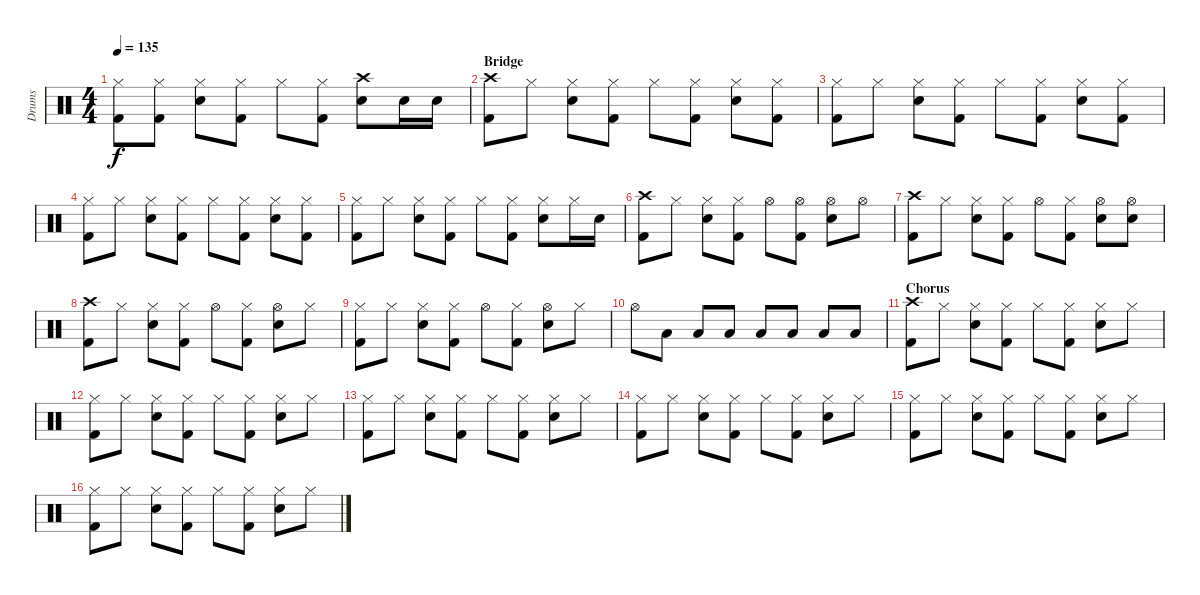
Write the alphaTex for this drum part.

\track ("Drums" "Drums") {instrument percussion}
\staff {score}
\articulation defaults
\ts (4 4)
\tempo 135
\clef neutral
\ks c
("Kick (hit) 2" "Hi-Hat (closed)").8{dy f} ("Kick (hit) 2" "Hi-Hat (closed)").8 ("Snare (hit) 2" "Hi-Hat (closed)").8 ("Kick (hit) 2" "Hi-Hat (closed)").8 "Hi-Hat (closed)".8 ("Kick (hit) 2" "Hi-Hat (closed)").8 ("Crash high (hit)" "Snare (hit) 2").8 "Snare (hit) 2".16 "Snare (hit) 2".16 |
\section ("" "Bridge")
("Crash high (hit)" "Kick (hit) 2").8 "Hi-Hat (closed)".8 ("Snare (hit) 2" "Hi-Hat (closed)").8 ("Kick (hit) 2" "Hi-Hat (closed)").8 "Hi-Hat (closed)".8 ("Kick (hit) 2" "Hi-Hat (closed)").8 ("Snare (hit) 2" "Hi-Hat (closed)").8 ("Kick (hit) 2" "Hi-Hat (closed)").8 |
("Kick (hit) 2" "Hi-Hat (closed)").8 "Hi-Hat (closed)".8 ("Snare (hit) 2" "Hi-Hat (closed)").8 ("Kick (hit) 2" "Hi-Hat (closed)").8 "Hi-Hat (closed)".8 ("Kick (hit) 2" "Hi-Hat (closed)").8 ("Snare (hit) 2" "Hi-Hat (closed)").8 ("Kick (hit) 2" "Hi-Hat (closed)").8 |
("Kick (hit) 2" "Hi-Hat (closed)").8 "Hi-Hat (closed)".8 ("Snare (hit) 2" "Hi-Hat (closed)").8 ("Kick (hit) 2" "Hi-Hat (closed)").8 "Hi-Hat (closed)".8 ("Kick (hit) 2" "Hi-Hat (closed)").8 ("Snare (hit) 2" "Hi-Hat (closed)").8 ("Kick (hit) 2" "Hi-Hat (closed)").8 |
("Kick (hit) 2" "Hi-Hat (closed)").8 "Hi-Hat (closed)".8 ("Snare (hit) 2" "Hi-Hat (closed)").8 ("Kick (hit) 2" "Hi-Hat (closed)").8 "Hi-Hat (closed)".8 ("Kick (hit) 2" "Hi-Hat (closed)").8 ("Snare (hit) 2" "Hi-Hat (closed)").8 "Hi-Hat (closed)".16 "Snare (hit) 2".16 |
("Crash high (hit)" "Kick (hit) 2").8 "Hi-Hat (closed)".8 ("Snare (hit) 2" "Hi-Hat (closed)").8 ("Kick (hit) 2" "Hi-Hat (closed)").8 "Hi-Hat (open)".8 ("Kick (hit) 2" "Hi-Hat (open)").8 ("Snare (hit) 2" "Hi-Hat (open)").8 "Hi-Hat (open)".8 |
("Crash high (hit)" "Kick (hit) 2").8 "Hi-Hat (closed)".8 ("Snare (hit) 2" "Hi-Hat (closed)").8 ("Kick (hit) 2" "Hi-Hat (closed)").8 "Hi-Hat (open)".8 ("Kick (hit) 2" "Hi-Hat (closed)").8 ("Snare (hit) 2" "Hi-Hat (open)").8 ("Snare (hit) 2" "Hi-Hat (open)").8 |
("Crash high (hit)" "Kick (hit) 2").8 "Hi-Hat (closed)".8 ("Snare (hit) 2" "Hi-Hat (closed)").8 ("Kick (hit) 2" "Hi-Hat (closed)").8 "Hi-Hat (open)".8 ("Kick (hit) 2" "Hi-Hat (closed)").8 ("Snare (hit) 2" "Hi-Hat (open)").8 "Hi-Hat (closed)".8 |
("Kick (hit) 2" "Hi-Hat (closed)").8 "Hi-Hat (closed)".8 ("Snare (hit) 2" "Hi-Hat (closed)").8 ("Kick (hit) 2" "Hi-Hat (closed)").8 "Hi-Hat (open)".8 ("Kick (hit) 2" "Hi-Hat (closed)").8 ("Snare (hit) 2" "Hi-Hat (open)").8 "Hi-Hat (closed)".8 |
"Hi-Hat (open)".8 "Low Floor Tom (hit)".8 "Low Floor Tom (hit)".8 "Low Floor Tom (hit)".8 "Low Floor Tom (hit)".8 "Low Floor Tom (hit)".8 "Low Floor Tom (hit)".8 "Low Floor Tom (hit)".8 |
\section ("" "Chorus")
("Crash high (hit)" "Kick (hit) 2").8 "Hi-Hat (closed)".8 ("Snare (hit) 2" "Hi-Hat (closed)").8 ("Kick (hit) 2" "Hi-Hat (closed)").8 "Hi-Hat (closed)".8 ("Kick (hit) 2" "Hi-Hat (closed)").8 ("Snare (hit) 2" "Hi-Hat (closed)").8 "Hi-Hat (closed)".8 |
("Kick (hit) 2" "Hi-Hat (closed)").8 "Hi-Hat (closed)".8 ("Snare (hit) 2" "Hi-Hat (closed)").8 ("Kick (hit) 2" "Hi-Hat (closed)").8 "Hi-Hat (closed)".8 ("Kick (hit) 2" "Hi-Hat (closed)").8 ("Snare (hit) 2" "Hi-Hat (closed)").8 "Hi-Hat (closed)".8 |
("Kick (hit) 2" "Hi-Hat (closed)").8 "Hi-Hat (closed)".8 ("Snare (hit) 2" "Hi-Hat (closed)").8 ("Kick (hit) 2" "Hi-Hat (closed)").8 "Hi-Hat (closed)".8 ("Kick (hit) 2" "Hi-Hat (closed)").8 ("Snare (hit) 2" "Hi-Hat (closed)").8 "Hi-Hat (closed)".8 |
("Kick (hit) 2" "Hi-Hat (closed)").8 "Hi-Hat (closed)".8 ("Snare (hit) 2" "Hi-Hat (closed)").8 ("Kick (hit) 2" "Hi-Hat (closed)").8 "Hi-Hat (closed)".8 ("Kick (hit) 2" "Hi-Hat (closed)").8 ("Snare (hit) 2" "Hi-Hat (closed)").8 "Hi-Hat (closed)".8 |
("Kick (hit) 2" "Hi-Hat (closed)").8 "Hi-Hat (closed)".8 ("Snare (hit) 2" "Hi-Hat (closed)").8 ("Kick (hit) 2" "Hi-Hat (closed)").8 "Hi-Hat (closed)".8 ("Kick (hit) 2" "Hi-Hat (closed)").8 ("Snare (hit) 2" "Hi-Hat (closed)").8 "Hi-Hat (closed)".8 |
("Kick (hit) 2" "Hi-Hat (closed)").8 "Hi-Hat (closed)".8 ("Snare (hit) 2" "Hi-Hat (closed)").8 ("Kick (hit) 2" "Hi-Hat (closed)").8 "Hi-Hat (closed)".8 ("Kick (hit) 2" "Hi-Hat (closed)").8 ("Snare (hit) 2" "Hi-Hat (closed)").8 "Hi-Hat (closed)".8
